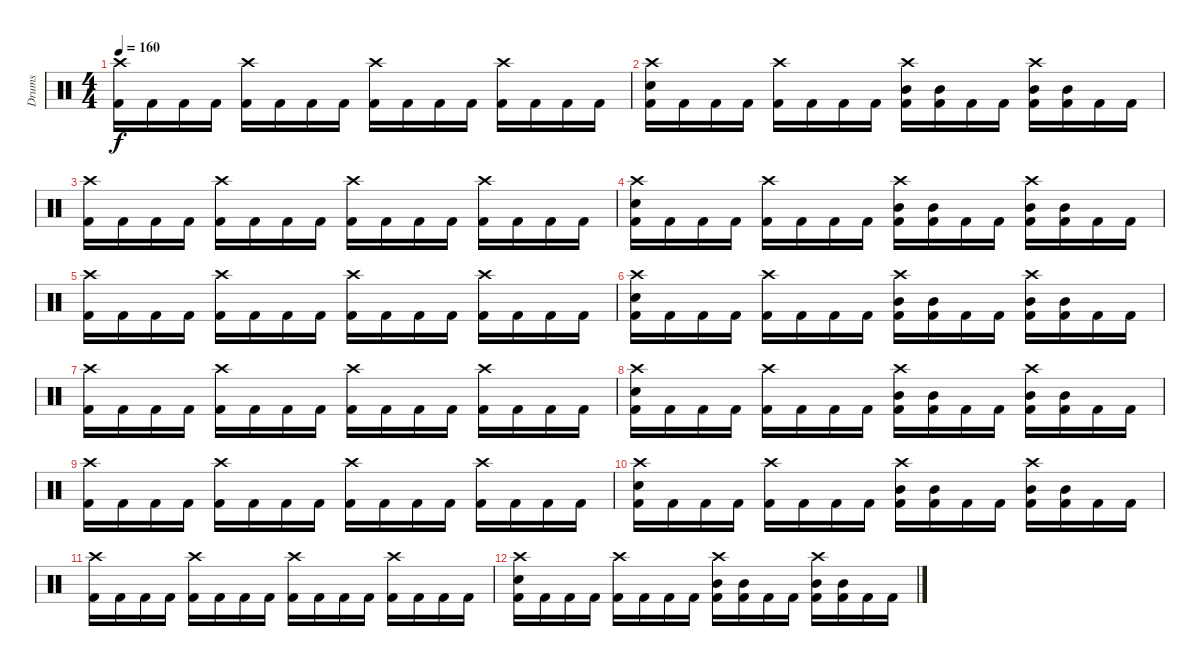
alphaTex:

\track ("Drums" "Drums") {instrument percussion}
\staff {score}
\articulation defaults
\ts (4 4)
\tempo 160
\clef neutral
\ks c
("Crash high (hit)" "Kick (hit) 2").16{dy f} "Kick (hit) 2".16 "Kick (hit) 2".16 "Kick (hit) 2".16 ("Crash high (hit)" "Kick (hit) 2").16 "Kick (hit) 2".16 "Kick (hit) 2".16 "Kick (hit) 2".16 ("Crash high (hit)" "Kick (hit) 2").16 "Kick (hit) 2".16 "Kick (hit) 2".16 "Kick (hit) 2".16 ("Crash high (hit)" "Kick (hit) 2").16 "Kick (hit) 2".16 "Kick (hit) 2".16 "Kick (hit) 2".16 |
("Crash high (hit)" "Electric Snare (hit)" "Kick (hit) 2").16 "Kick (hit) 2".16 "Kick (hit) 2".16 "Kick (hit) 2".16 ("Crash high (hit)" "Kick (hit) 2").16 "Kick (hit) 2".16 "Kick (hit) 2".16 "Kick (hit) 2".16 ("Crash high (hit)" "Mid Tom (hit)" "Kick (hit) 2").16 ("Mid Tom (hit)" "Kick (hit) 2").16 "Kick (hit) 2".16 "Kick (hit) 2".16 ("Crash high (hit)" "Mid Tom (hit)" "Kick (hit) 2").16 ("Mid Tom (hit)" "Kick (hit) 2").16 "Kick (hit) 2".16 "Kick (hit) 2".16 |
("Crash high (hit)" "Kick (hit) 2").16 "Kick (hit) 2".16 "Kick (hit) 2".16 "Kick (hit) 2".16 ("Crash high (hit)" "Kick (hit) 2").16 "Kick (hit) 2".16 "Kick (hit) 2".16 "Kick (hit) 2".16 ("Crash high (hit)" "Kick (hit) 2").16 "Kick (hit) 2".16 "Kick (hit) 2".16 "Kick (hit) 2".16 ("Crash high (hit)" "Kick (hit) 2").16 "Kick (hit) 2".16 "Kick (hit) 2".16 "Kick (hit) 2".16 |
("Crash high (hit)" "Electric Snare (hit)" "Kick (hit) 2").16 "Kick (hit) 2".16 "Kick (hit) 2".16 "Kick (hit) 2".16 ("Crash high (hit)" "Kick (hit) 2").16 "Kick (hit) 2".16 "Kick (hit) 2".16 "Kick (hit) 2".16 ("Crash high (hit)" "Mid Tom (hit)" "Kick (hit) 2").16 ("Mid Tom (hit)" "Kick (hit) 2").16 "Kick (hit) 2".16 "Kick (hit) 2".16 ("Crash high (hit)" "Mid Tom (hit)" "Kick (hit) 2").16 ("Mid Tom (hit)" "Kick (hit) 2").16 "Kick (hit) 2".16 "Kick (hit) 2".16 |
("Crash high (hit)" "Kick (hit) 2").16 "Kick (hit) 2".16 "Kick (hit) 2".16 "Kick (hit) 2".16 ("Crash high (hit)" "Kick (hit) 2").16 "Kick (hit) 2".16 "Kick (hit) 2".16 "Kick (hit) 2".16 ("Crash high (hit)" "Kick (hit) 2").16 "Kick (hit) 2".16 "Kick (hit) 2".16 "Kick (hit) 2".16 ("Crash high (hit)" "Kick (hit) 2").16 "Kick (hit) 2".16 "Kick (hit) 2".16 "Kick (hit) 2".16 |
("Crash high (hit)" "Electric Snare (hit)" "Kick (hit) 2").16 "Kick (hit) 2".16 "Kick (hit) 2".16 "Kick (hit) 2".16 ("Crash high (hit)" "Kick (hit) 2").16 "Kick (hit) 2".16 "Kick (hit) 2".16 "Kick (hit) 2".16 ("Crash high (hit)" "Mid Tom (hit)" "Kick (hit) 2").16 ("Mid Tom (hit)" "Kick (hit) 2").16 "Kick (hit) 2".16 "Kick (hit) 2".16 ("Crash high (hit)" "Mid Tom (hit)" "Kick (hit) 2").16 ("Mid Tom (hit)" "Kick (hit) 2").16 "Kick (hit) 2".16 "Kick (hit) 2".16 |
("Crash high (hit)" "Kick (hit) 2").16 "Kick (hit) 2".16 "Kick (hit) 2".16 "Kick (hit) 2".16 ("Crash high (hit)" "Kick (hit) 2").16 "Kick (hit) 2".16 "Kick (hit) 2".16 "Kick (hit) 2".16 ("Crash high (hit)" "Kick (hit) 2").16 "Kick (hit) 2".16 "Kick (hit) 2".16 "Kick (hit) 2".16 ("Crash high (hit)" "Kick (hit) 2").16 "Kick (hit) 2".16 "Kick (hit) 2".16 "Kick (hit) 2".16 |
("Crash high (hit)" "Electric Snare (hit)" "Kick (hit) 2").16 "Kick (hit) 2".16 "Kick (hit) 2".16 "Kick (hit) 2".16 ("Crash high (hit)" "Kick (hit) 2").16 "Kick (hit) 2".16 "Kick (hit) 2".16 "Kick (hit) 2".16 ("Crash high (hit)" "Mid Tom (hit)" "Kick (hit) 2").16 ("Mid Tom (hit)" "Kick (hit) 2").16 "Kick (hit) 2".16 "Kick (hit) 2".16 ("Crash high (hit)" "Mid Tom (hit)" "Kick (hit) 2").16 ("Mid Tom (hit)" "Kick (hit) 2").16 "Kick (hit) 2".16 "Kick (hit) 2".16 |
("Crash high (hit)" "Kick (hit) 2").16 "Kick (hit) 2".16 "Kick (hit) 2".16 "Kick (hit) 2".16 ("Crash high (hit)" "Kick (hit) 2").16 "Kick (hit) 2".16 "Kick (hit) 2".16 "Kick (hit) 2".16 ("Crash high (hit)" "Kick (hit) 2").16 "Kick (hit) 2".16 "Kick (hit) 2".16 "Kick (hit) 2".16 ("Crash high (hit)" "Kick (hit) 2").16 "Kick (hit) 2".16 "Kick (hit) 2".16 "Kick (hit) 2".16 |
("Crash high (hit)" "Electric Snare (hit)" "Kick (hit) 2").16 "Kick (hit) 2".16 "Kick (hit) 2".16 "Kick (hit) 2".16 ("Crash high (hit)" "Kick (hit) 2").16 "Kick (hit) 2".16 "Kick (hit) 2".16 "Kick (hit) 2".16 ("Crash high (hit)" "Mid Tom (hit)" "Kick (hit) 2").16 ("Mid Tom (hit)" "Kick (hit) 2").16 "Kick (hit) 2".16 "Kick (hit) 2".16 ("Crash high (hit)" "Mid Tom (hit)" "Kick (hit) 2").16 ("Mid Tom (hit)" "Kick (hit) 2").16 "Kick (hit) 2".16 "Kick (hit) 2".16 |
("Crash high (hit)" "Kick (hit) 2").16 "Kick (hit) 2".16 "Kick (hit) 2".16 "Kick (hit) 2".16 ("Crash high (hit)" "Kick (hit) 2").16 "Kick (hit) 2".16 "Kick (hit) 2".16 "Kick (hit) 2".16 ("Crash high (hit)" "Kick (hit) 2").16 "Kick (hit) 2".16 "Kick (hit) 2".16 "Kick (hit) 2".16 ("Crash high (hit)" "Kick (hit) 2").16 "Kick (hit) 2".16 "Kick (hit) 2".16 "Kick (hit) 2".16 |
("Crash high (hit)" "Electric Snare (hit)" "Kick (hit) 2").16 "Kick (hit) 2".16 "Kick (hit) 2".16 "Kick (hit) 2".16 ("Crash high (hit)" "Kick (hit) 2").16 "Kick (hit) 2".16 "Kick (hit) 2".16 "Kick (hit) 2".16 ("Crash high (hit)" "Mid Tom (hit)" "Kick (hit) 2").16 ("Mid Tom (hit)" "Kick (hit) 2").16 "Kick (hit) 2".16 "Kick (hit) 2".16 ("Crash high (hit)" "Mid Tom (hit)" "Kick (hit) 2").16 ("Mid Tom (hit)" "Kick (hit) 2").16 "Kick (hit) 2".16 "Kick (hit) 2".16
